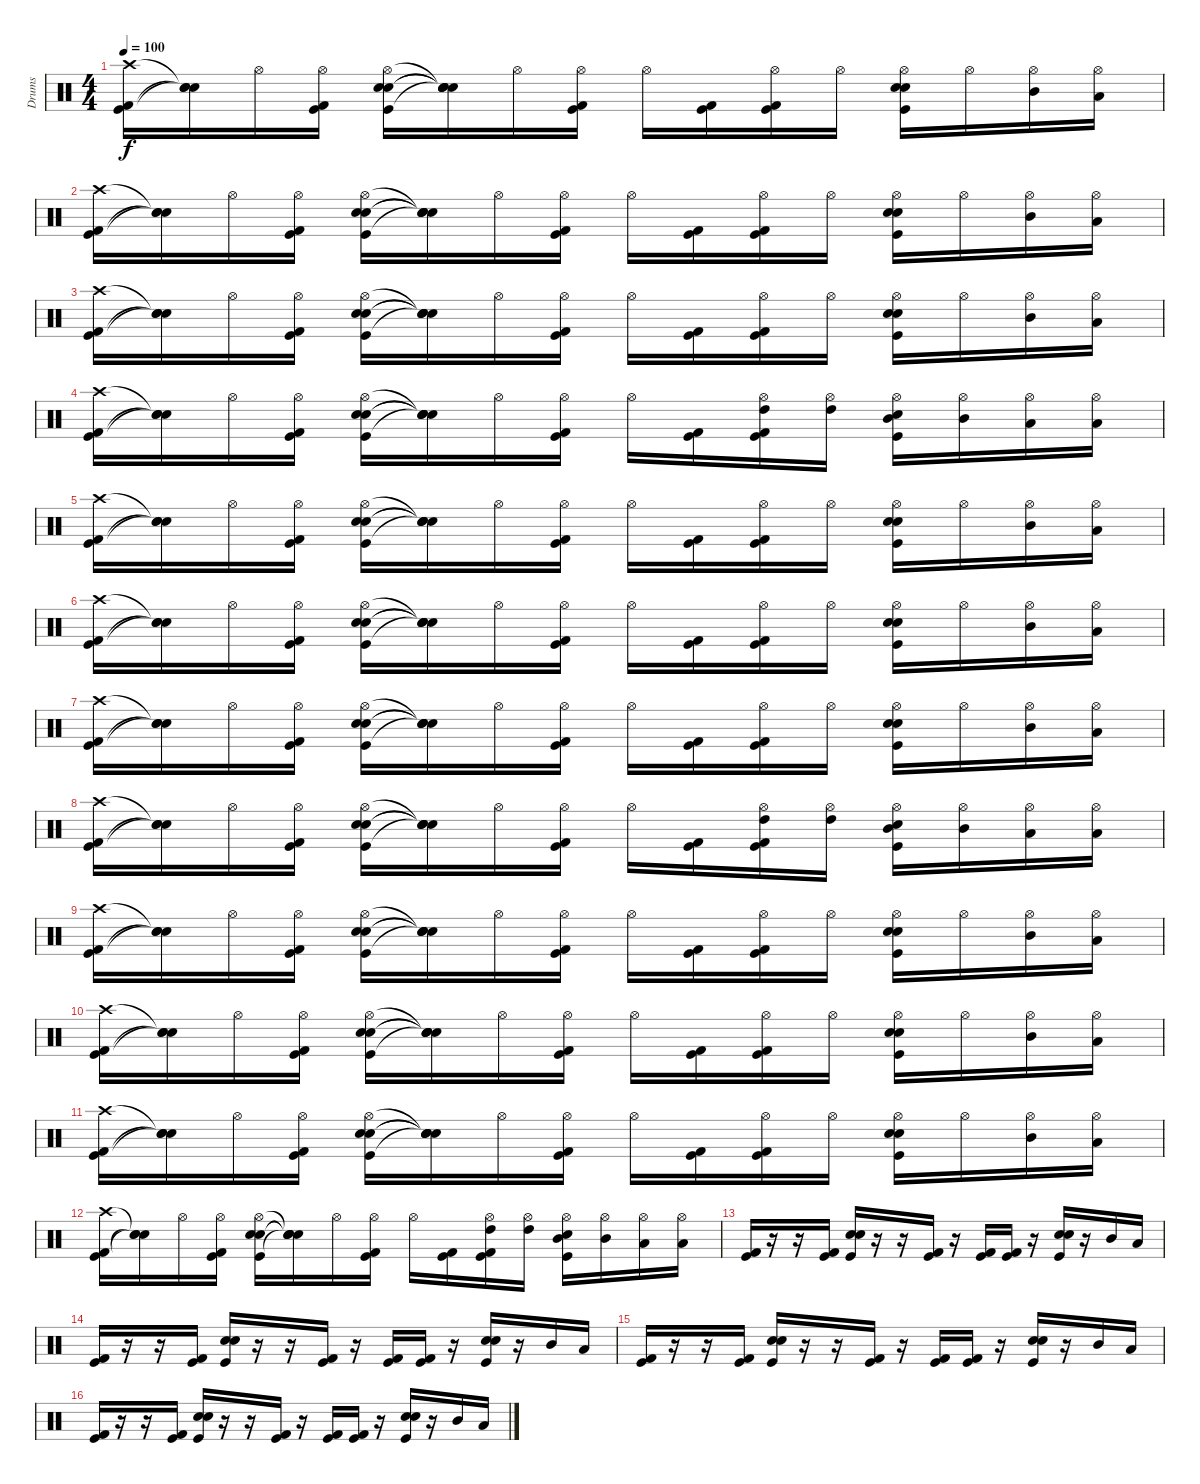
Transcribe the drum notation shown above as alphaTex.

\track ("Drums" "Drums") {instrument percussion}
\staff {score}
\articulation defaults
\ts (4 4)
\tempo 100
\clef neutral
\ks c
("Kick (hit) 2" "Kick (hit)" "Crash high (hit)").16{dy f} ("Snare (hit)"{t} "Snare (hit)"{t} "Snare (hit)"{t}).16 "Hi-Hat (open)".16 ("Kick (hit)" "Kick (hit) 2" "Hi-Hat (open)").16 ("Snare (hit) 2" "Kick (hit)" "Electric Snare (hit)" "Hi-Hat (open)").16 ("Snare (hit)"{t} "Snare (hit)"{t} "Snare (hit)"{t} "Snare (hit)"{t}).16 "Hi-Hat (open)".16 ("Kick (hit)" "Kick (hit) 2" "Hi-Hat (open)").16 "Hi-Hat (open)".16 ("Kick (hit)" "Kick (hit) 2").16 ("Kick (hit)" "Kick (hit) 2" "Hi-Hat (open)").16 "Hi-Hat (open)".16 ("Snare (hit) 2" "Kick (hit)" "Electric Snare (hit)" "Hi-Hat (open)").16 "Hi-Hat (open)".16 ("Mid Tom (hit)" "Hi-Hat (open)").16 ("Low Tom (hit)" "Hi-Hat (open)").16 |
("Kick (hit) 2" "Kick (hit)" "Crash high (hit)").16 ("Snare (hit)"{t} "Snare (hit)"{t} "Snare (hit)"{t}).16 "Hi-Hat (open)".16 ("Kick (hit)" "Kick (hit) 2" "Hi-Hat (open)").16 ("Snare (hit) 2" "Kick (hit)" "Electric Snare (hit)" "Hi-Hat (open)").16 ("Snare (hit)"{t} "Snare (hit)"{t} "Snare (hit)"{t} "Snare (hit)"{t}).16 "Hi-Hat (open)".16 ("Kick (hit)" "Kick (hit) 2" "Hi-Hat (open)").16 "Hi-Hat (open)".16 ("Kick (hit)" "Kick (hit) 2").16 ("Kick (hit)" "Kick (hit) 2" "Hi-Hat (open)").16 "Hi-Hat (open)".16 ("Snare (hit) 2" "Kick (hit)" "Electric Snare (hit)" "Hi-Hat (open)").16 "Hi-Hat (open)".16 ("Mid Tom (hit)" "Hi-Hat (open)").16 ("Low Tom (hit)" "Hi-Hat (open)").16 |
("Kick (hit) 2" "Kick (hit)" "Crash high (hit)").16 ("Snare (hit)"{t} "Snare (hit)"{t} "Snare (hit)"{t}).16 "Hi-Hat (open)".16 ("Kick (hit)" "Kick (hit) 2" "Hi-Hat (open)").16 ("Snare (hit) 2" "Kick (hit)" "Electric Snare (hit)" "Hi-Hat (open)").16 ("Snare (hit)"{t} "Snare (hit)"{t} "Snare (hit)"{t} "Snare (hit)"{t}).16 "Hi-Hat (open)".16 ("Kick (hit)" "Kick (hit) 2" "Hi-Hat (open)").16 "Hi-Hat (open)".16 ("Kick (hit)" "Kick (hit) 2").16 ("Kick (hit)" "Kick (hit) 2" "Hi-Hat (open)").16 "Hi-Hat (open)".16 ("Snare (hit) 2" "Kick (hit)" "Electric Snare (hit)" "Hi-Hat (open)").16 "Hi-Hat (open)".16 ("Mid Tom (hit)" "Hi-Hat (open)").16 ("Low Tom (hit)" "Hi-Hat (open)").16 |
("Kick (hit) 2" "Kick (hit)" "Crash high (hit)").16 ("Snare (hit)"{t} "Snare (hit)"{t} "Snare (hit)"{t}).16 "Hi-Hat (open)".16 ("Kick (hit)" "Kick (hit) 2" "Hi-Hat (open)").16 ("Snare (hit) 2" "Kick (hit)" "Electric Snare (hit)" "Hi-Hat (open)").16 ("Snare (hit)"{t} "Snare (hit)"{t} "Snare (hit)"{t} "Snare (hit)"{t}).16 "Hi-Hat (open)".16 ("Kick (hit)" "Kick (hit) 2" "Hi-Hat (open)").16 "Hi-Hat (open)".16 ("Kick (hit)" "Kick (hit) 2").16 ("High Tom (hit)" "Kick (hit)" "Kick (hit) 2" "Hi-Hat (open)").16 ("High Tom (hit)" "Hi-Hat (open)").16 ("Mid Tom (hit)" "Kick (hit)" "Electric Snare (hit)" "Hi-Hat (open)").16 ("Mid Tom (hit)" "Hi-Hat (open)").16 ("Low Tom (hit)" "Hi-Hat (open)").16 ("Low Floor Tom (hit)" "Hi-Hat (open)").16 |
("Kick (hit) 2" "Kick (hit)" "Crash high (hit)").16 ("Snare (hit)"{t} "Snare (hit)"{t} "Snare (hit)"{t}).16 "Hi-Hat (open)".16 ("Kick (hit)" "Kick (hit) 2" "Hi-Hat (open)").16 ("Snare (hit) 2" "Kick (hit)" "Electric Snare (hit)" "Hi-Hat (open)").16 ("Snare (hit)"{t} "Snare (hit)"{t} "Snare (hit)"{t} "Snare (hit)"{t}).16 "Hi-Hat (open)".16 ("Kick (hit)" "Kick (hit) 2" "Hi-Hat (open)").16 "Hi-Hat (open)".16 ("Kick (hit)" "Kick (hit) 2").16 ("Kick (hit)" "Kick (hit) 2" "Hi-Hat (open)").16 "Hi-Hat (open)".16 ("Snare (hit) 2" "Kick (hit)" "Electric Snare (hit)" "Hi-Hat (open)").16 "Hi-Hat (open)".16 ("Mid Tom (hit)" "Hi-Hat (open)").16 ("Low Tom (hit)" "Hi-Hat (open)").16 |
("Kick (hit) 2" "Kick (hit)" "Crash high (hit)").16 ("Snare (hit)"{t} "Snare (hit)"{t} "Snare (hit)"{t}).16 "Hi-Hat (open)".16 ("Kick (hit)" "Kick (hit) 2" "Hi-Hat (open)").16 ("Snare (hit) 2" "Kick (hit)" "Electric Snare (hit)" "Hi-Hat (open)").16 ("Snare (hit)"{t} "Snare (hit)"{t} "Snare (hit)"{t} "Snare (hit)"{t}).16 "Hi-Hat (open)".16 ("Kick (hit)" "Kick (hit) 2" "Hi-Hat (open)").16 "Hi-Hat (open)".16 ("Kick (hit)" "Kick (hit) 2").16 ("Kick (hit)" "Kick (hit) 2" "Hi-Hat (open)").16 "Hi-Hat (open)".16 ("Snare (hit) 2" "Kick (hit)" "Electric Snare (hit)" "Hi-Hat (open)").16 "Hi-Hat (open)".16 ("Mid Tom (hit)" "Hi-Hat (open)").16 ("Low Tom (hit)" "Hi-Hat (open)").16 |
("Kick (hit) 2" "Kick (hit)" "Crash high (hit)").16 ("Snare (hit)"{t} "Snare (hit)"{t} "Snare (hit)"{t}).16 "Hi-Hat (open)".16 ("Kick (hit)" "Kick (hit) 2" "Hi-Hat (open)").16 ("Snare (hit) 2" "Kick (hit)" "Electric Snare (hit)" "Hi-Hat (open)").16 ("Snare (hit)"{t} "Snare (hit)"{t} "Snare (hit)"{t} "Snare (hit)"{t}).16 "Hi-Hat (open)".16 ("Kick (hit)" "Kick (hit) 2" "Hi-Hat (open)").16 "Hi-Hat (open)".16 ("Kick (hit)" "Kick (hit) 2").16 ("Kick (hit)" "Kick (hit) 2" "Hi-Hat (open)").16 "Hi-Hat (open)".16 ("Snare (hit) 2" "Kick (hit)" "Electric Snare (hit)" "Hi-Hat (open)").16 "Hi-Hat (open)".16 ("Mid Tom (hit)" "Hi-Hat (open)").16 ("Low Tom (hit)" "Hi-Hat (open)").16 |
("Kick (hit) 2" "Kick (hit)" "Crash high (hit)").16 ("Snare (hit)"{t} "Snare (hit)"{t} "Snare (hit)"{t}).16 "Hi-Hat (open)".16 ("Kick (hit)" "Kick (hit) 2" "Hi-Hat (open)").16 ("Snare (hit) 2" "Kick (hit)" "Electric Snare (hit)" "Hi-Hat (open)").16 ("Snare (hit)"{t} "Snare (hit)"{t} "Snare (hit)"{t} "Snare (hit)"{t}).16 "Hi-Hat (open)".16 ("Kick (hit)" "Kick (hit) 2" "Hi-Hat (open)").16 "Hi-Hat (open)".16 ("Kick (hit)" "Kick (hit) 2").16 ("High Tom (hit)" "Kick (hit)" "Kick (hit) 2" "Hi-Hat (open)").16 ("High Tom (hit)" "Hi-Hat (open)").16 ("Mid Tom (hit)" "Kick (hit)" "Electric Snare (hit)" "Hi-Hat (open)").16 ("Mid Tom (hit)" "Hi-Hat (open)").16 ("Low Tom (hit)" "Hi-Hat (open)").16 ("Low Floor Tom (hit)" "Hi-Hat (open)").16 |
("Kick (hit) 2" "Kick (hit)" "Crash high (hit)").16 ("Snare (hit)"{t} "Snare (hit)"{t} "Snare (hit)"{t}).16 "Hi-Hat (open)".16 ("Kick (hit)" "Kick (hit) 2" "Hi-Hat (open)").16 ("Snare (hit) 2" "Kick (hit)" "Electric Snare (hit)" "Hi-Hat (open)").16 ("Snare (hit)"{t} "Snare (hit)"{t} "Snare (hit)"{t} "Snare (hit)"{t}).16 "Hi-Hat (open)".16 ("Kick (hit)" "Kick (hit) 2" "Hi-Hat (open)").16 "Hi-Hat (open)".16 ("Kick (hit)" "Kick (hit) 2").16 ("Kick (hit)" "Kick (hit) 2" "Hi-Hat (open)").16 "Hi-Hat (open)".16 ("Snare (hit) 2" "Kick (hit)" "Electric Snare (hit)" "Hi-Hat (open)").16 "Hi-Hat (open)".16 ("Mid Tom (hit)" "Hi-Hat (open)").16 ("Low Tom (hit)" "Hi-Hat (open)").16 |
("Kick (hit) 2" "Kick (hit)" "Crash high (hit)").16 ("Snare (hit)"{t} "Snare (hit)"{t} "Snare (hit)"{t}).16 "Hi-Hat (open)".16 ("Kick (hit)" "Kick (hit) 2" "Hi-Hat (open)").16 ("Snare (hit) 2" "Kick (hit)" "Electric Snare (hit)" "Hi-Hat (open)").16 ("Snare (hit)"{t} "Snare (hit)"{t} "Snare (hit)"{t} "Snare (hit)"{t}).16 "Hi-Hat (open)".16 ("Kick (hit)" "Kick (hit) 2" "Hi-Hat (open)").16 "Hi-Hat (open)".16 ("Kick (hit)" "Kick (hit) 2").16 ("Kick (hit)" "Kick (hit) 2" "Hi-Hat (open)").16 "Hi-Hat (open)".16 ("Snare (hit) 2" "Kick (hit)" "Electric Snare (hit)" "Hi-Hat (open)").16 "Hi-Hat (open)".16 ("Mid Tom (hit)" "Hi-Hat (open)").16 ("Low Tom (hit)" "Hi-Hat (open)").16 |
("Kick (hit) 2" "Kick (hit)" "Crash high (hit)").16 ("Snare (hit)"{t} "Snare (hit)"{t} "Snare (hit)"{t}).16 "Hi-Hat (open)".16 ("Kick (hit)" "Kick (hit) 2" "Hi-Hat (open)").16 ("Snare (hit) 2" "Kick (hit)" "Electric Snare (hit)" "Hi-Hat (open)").16 ("Snare (hit)"{t} "Snare (hit)"{t} "Snare (hit)"{t} "Snare (hit)"{t}).16 "Hi-Hat (open)".16 ("Kick (hit)" "Kick (hit) 2" "Hi-Hat (open)").16 "Hi-Hat (open)".16 ("Kick (hit)" "Kick (hit) 2").16 ("Kick (hit)" "Kick (hit) 2" "Hi-Hat (open)").16 "Hi-Hat (open)".16 ("Snare (hit) 2" "Kick (hit)" "Electric Snare (hit)" "Hi-Hat (open)").16 "Hi-Hat (open)".16 ("Mid Tom (hit)" "Hi-Hat (open)").16 ("Low Tom (hit)" "Hi-Hat (open)").16 |
("Kick (hit) 2" "Kick (hit)" "Crash high (hit)").16 ("Snare (hit)"{t} "Snare (hit)"{t} "Snare (hit)"{t}).16 "Hi-Hat (open)".16 ("Kick (hit)" "Kick (hit) 2" "Hi-Hat (open)").16 ("Snare (hit) 2" "Kick (hit)" "Electric Snare (hit)" "Hi-Hat (open)").16 ("Snare (hit)"{t} "Snare (hit)"{t} "Snare (hit)"{t} "Snare (hit)"{t}).16 "Hi-Hat (open)".16 ("Kick (hit)" "Kick (hit) 2" "Hi-Hat (open)").16 "Hi-Hat (open)".16 ("Kick (hit)" "Kick (hit) 2").16 ("High Tom (hit)" "Kick (hit)" "Kick (hit) 2" "Hi-Hat (open)").16 ("High Tom (hit)" "Hi-Hat (open)").16 ("Mid Tom (hit)" "Kick (hit)" "Electric Snare (hit)" "Hi-Hat (open)").16 ("Mid Tom (hit)" "Hi-Hat (open)").16 ("Low Tom (hit)" "Hi-Hat (open)").16 ("Low Floor Tom (hit)" "Hi-Hat (open)").16 |
("Kick (hit) 2" "Kick (hit)").16 r.16 r.16 ("Kick (hit)" "Kick (hit) 2").16 ("Snare (hit) 2" "Kick (hit)" "Electric Snare (hit)").16 r.16 r.16 ("Kick (hit)" "Kick (hit) 2").16 r.16 ("Kick (hit)" "Kick (hit) 2").16 ("Kick (hit)" "Kick (hit) 2").16 r.16 ("Snare (hit) 2" "Kick (hit)" "Electric Snare (hit)").16 r.16 "Mid Tom (hit)".16 "Low Tom (hit)".16 |
("Kick (hit) 2" "Kick (hit)").16 r.16 r.16 ("Kick (hit)" "Kick (hit) 2").16 ("Snare (hit) 2" "Kick (hit)" "Electric Snare (hit)").16 r.16 r.16 ("Kick (hit)" "Kick (hit) 2").16 r.16 ("Kick (hit)" "Kick (hit) 2").16 ("Kick (hit)" "Kick (hit) 2").16 r.16 ("Snare (hit) 2" "Kick (hit)" "Electric Snare (hit)").16 r.16 "Mid Tom (hit)".16 "Low Tom (hit)".16 |
("Kick (hit) 2" "Kick (hit)").16 r.16 r.16 ("Kick (hit)" "Kick (hit) 2").16 ("Snare (hit) 2" "Kick (hit)" "Electric Snare (hit)").16 r.16 r.16 ("Kick (hit)" "Kick (hit) 2").16 r.16 ("Kick (hit)" "Kick (hit) 2").16 ("Kick (hit)" "Kick (hit) 2").16 r.16 ("Snare (hit) 2" "Kick (hit)" "Electric Snare (hit)").16 r.16 "Mid Tom (hit)".16 "Low Tom (hit)".16 |
("Kick (hit) 2" "Kick (hit)").16 r.16 r.16 ("Kick (hit)" "Kick (hit) 2").16 ("Snare (hit) 2" "Kick (hit)" "Electric Snare (hit)").16 r.16 r.16 ("Kick (hit)" "Kick (hit) 2").16 r.16 ("Kick (hit)" "Kick (hit) 2").16 ("Kick (hit)" "Kick (hit) 2").16 r.16 ("Snare (hit) 2" "Kick (hit)" "Electric Snare (hit)").16 r.16 "Mid Tom (hit)".16 "Low Tom (hit)".16
